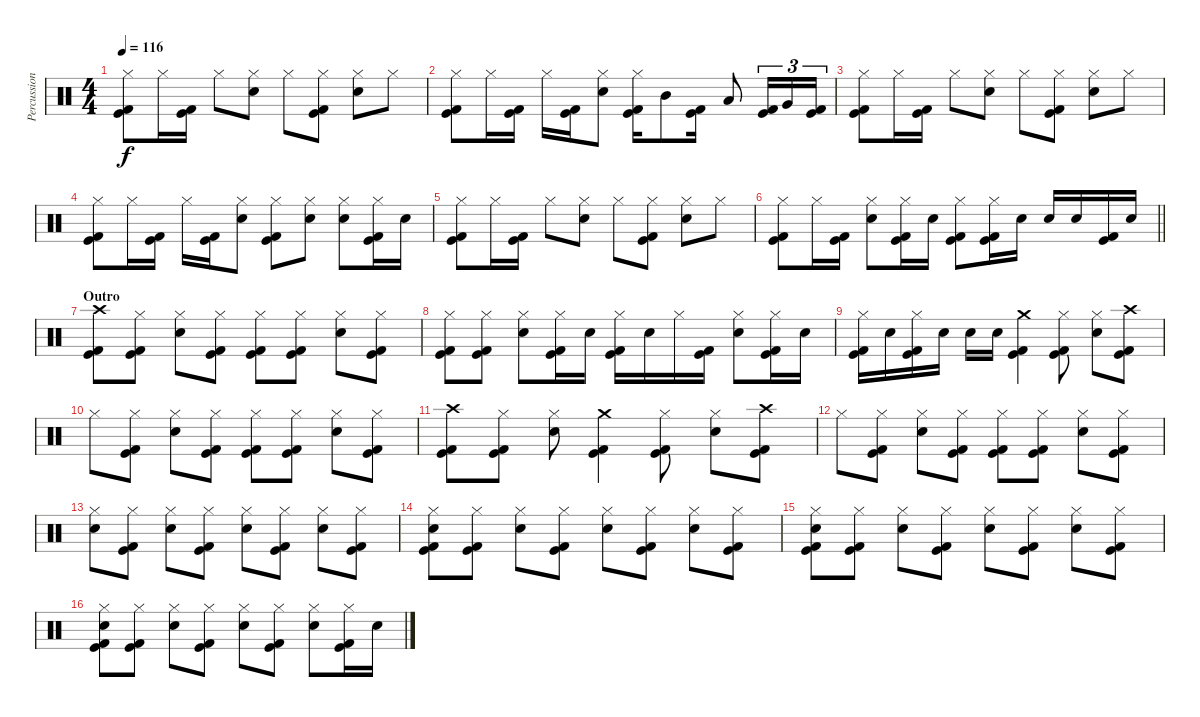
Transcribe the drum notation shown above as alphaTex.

\track ("Percussion" "Percussion") {instrument percussion}
\staff {score}
\articulation defaults
\ts (4 4)
\tempo 116
\clef neutral
\ks c
("Hi-Hat (closed)" "Kick (hit)" "Kick (hit) 2").8{dy f} "Hi-Hat (closed)".16 ("Kick (hit)" "Kick (hit) 2").16 "Hi-Hat (closed)".8 ("Hi-Hat (closed)" "Electric Snare (hit)").8 "Hi-Hat (closed)".8 ("Hi-Hat (closed)" "Kick (hit)" "Kick (hit) 2").8 ("Hi-Hat (closed)" "Electric Snare (hit)").8 "Hi-Hat (closed)".8 |
("Hi-Hat (closed)" "Kick (hit)" "Kick (hit) 2").8 "Hi-Hat (closed)".16 ("Kick (hit)" "Kick (hit) 2").16 "Hi-Hat (closed)".16 ("Kick (hit)" "Kick (hit) 2").16 ("Hi-Hat (closed)" "Electric Snare (hit)").8 ("Hi-Hat (closed)" "Kick (hit)" "Kick (hit) 2").16 "Mid Tom (hit)".8 ("Kick (hit)" "Kick (hit) 2").16 "Low Tom (hit)".8 ("Kick (hit)" "Kick (hit) 2").16{tu (3 2)} "Very Low Tom (hit)".16{tu (3 2)} ("Kick (hit)" "Kick (hit) 2").16{tu (3 2)} |
("Hi-Hat (closed)" "Kick (hit)" "Kick (hit) 2").8 "Hi-Hat (closed)".16 ("Kick (hit)" "Kick (hit) 2").16 "Hi-Hat (closed)".8 ("Hi-Hat (closed)" "Electric Snare (hit)").8 "Hi-Hat (closed)".8 ("Hi-Hat (closed)" "Kick (hit)" "Kick (hit) 2").8 ("Hi-Hat (closed)" "Electric Snare (hit)").8 "Hi-Hat (closed)".8 |
("Hi-Hat (closed)" "Kick (hit)" "Kick (hit) 2").8 "Hi-Hat (closed)".16 ("Kick (hit)" "Kick (hit) 2").16 "Hi-Hat (closed)".16 ("Kick (hit)" "Kick (hit) 2").16 ("Hi-Hat (closed)" "Electric Snare (hit)").8 ("Hi-Hat (closed)" "Kick (hit)" "Kick (hit) 2").8 ("Hi-Hat (closed)" "Electric Snare (hit)").8 ("Hi-Hat (closed)" "Electric Snare (hit)").8 ("Hi-Hat (closed)" "Kick (hit)" "Kick (hit) 2").16 "Electric Snare (hit)".16 |
("Hi-Hat (closed)" "Kick (hit)" "Kick (hit) 2").8 "Hi-Hat (closed)".16 ("Kick (hit)" "Kick (hit) 2").16 "Hi-Hat (closed)".8 ("Hi-Hat (closed)" "Electric Snare (hit)").8 "Hi-Hat (closed)".8 ("Hi-Hat (closed)" "Kick (hit)" "Kick (hit) 2").8 ("Hi-Hat (closed)" "Electric Snare (hit)").8 "Hi-Hat (closed)".8 |
\barLineRight lightlight
("Hi-Hat (closed)" "Kick (hit)" "Kick (hit) 2").8 "Hi-Hat (closed)".16 ("Kick (hit)" "Kick (hit) 2").16 ("Hi-Hat (closed)" "Electric Snare (hit)").8 ("Hi-Hat (closed)" "Kick (hit)" "Kick (hit) 2").16 "Electric Snare (hit)".16 ("Hi-Hat (closed)" "Kick (hit)" "Kick (hit) 2").8 ("Hi-Hat (closed)" "Kick (hit)" "Kick (hit) 2").16 "Electric Snare (hit)".16 "Electric Snare (hit)".16 "Electric Snare (hit)".16 ("Kick (hit)" "Kick (hit) 2").16 "Electric Snare (hit)".16 |
\section ("" "Outro")
("Crash high (hit)" "Kick (hit)" "Kick (hit) 2").8 ("Hi-Hat (closed)" "Kick (hit)" "Kick (hit) 2").8 ("Hi-Hat (closed)" "Electric Snare (hit)").8 ("Hi-Hat (closed)" "Kick (hit)" "Kick (hit) 2").8 ("Hi-Hat (closed)" "Kick (hit)" "Kick (hit) 2").8 ("Hi-Hat (closed)" "Kick (hit)" "Kick (hit) 2").8 ("Hi-Hat (closed)" "Electric Snare (hit)").8 ("Hi-Hat (closed)" "Kick (hit)" "Kick (hit) 2").8 |
("Hi-Hat (closed)" "Kick (hit)" "Kick (hit) 2").8 ("Hi-Hat (closed)" "Kick (hit)" "Kick (hit) 2").8 ("Hi-Hat (closed)" "Electric Snare (hit)").8 ("Hi-Hat (closed)" "Kick (hit)" "Kick (hit) 2").16 "Electric Snare (hit)".16 ("Hi-Hat (closed)" "Kick (hit)" "Kick (hit) 2").16 "Electric Snare (hit)".16 "Hi-Hat (closed)".16 ("Kick (hit)" "Kick (hit) 2").16 ("Hi-Hat (closed)" "Electric Snare (hit)").8 ("Hi-Hat (closed)" "Kick (hit)" "Kick (hit) 2").16 "Electric Snare (hit)".16 |
("Hi-Hat (closed)" "Kick (hit)" "Kick (hit) 2").16 "Electric Snare (hit)".16 ("Hi-Hat (closed)" "Kick (hit)" "Kick (hit) 2").16 "Electric Snare (hit)".16 "Electric Snare (hit)".16 "Electric Snare (hit)".16 ("Crash medium (hit)" "Kick (hit)" "Kick (hit) 2").4 ("Hi-Hat (closed)" "Kick (hit)" "Kick (hit) 2").8 ("Hi-Hat (closed)" "Electric Snare (hit)").8 ("Crash high (hit)" "Kick (hit)" "Kick (hit) 2").8 |
"Hi-Hat (closed)".8 ("Hi-Hat (closed)" "Kick (hit)" "Kick (hit) 2").8 ("Hi-Hat (closed)" "Electric Snare (hit)").8 ("Hi-Hat (closed)" "Kick (hit)" "Kick (hit) 2").8 ("Hi-Hat (closed)" "Kick (hit)" "Kick (hit) 2").8 ("Hi-Hat (closed)" "Kick (hit)" "Kick (hit) 2").8 ("Hi-Hat (closed)" "Electric Snare (hit)").8 ("Hi-Hat (closed)" "Kick (hit)" "Kick (hit) 2").8 |
("Crash high (hit)" "Kick (hit)" "Kick (hit) 2").8 ("Hi-Hat (closed)" "Kick (hit)" "Kick (hit) 2").8 ("Hi-Hat (closed)" "Electric Snare (hit)").8 ("Crash medium (hit)" "Kick (hit)" "Kick (hit) 2").4 ("Hi-Hat (closed)" "Kick (hit)" "Kick (hit) 2").8 ("Hi-Hat (closed)" "Electric Snare (hit)").8 ("Crash high (hit)" "Kick (hit)" "Kick (hit) 2").8 |
"Hi-Hat (closed)".8 ("Hi-Hat (closed)" "Kick (hit)" "Kick (hit) 2").8 ("Hi-Hat (closed)" "Electric Snare (hit)").8 ("Hi-Hat (closed)" "Kick (hit)" "Kick (hit) 2").8 ("Hi-Hat (closed)" "Kick (hit)" "Kick (hit) 2").8 ("Hi-Hat (closed)" "Kick (hit)" "Kick (hit) 2").8 ("Hi-Hat (closed)" "Electric Snare (hit)").8 ("Hi-Hat (closed)" "Kick (hit)" "Kick (hit) 2").8 |
("Hi-Hat (closed)" "Electric Snare (hit)").8 ("Hi-Hat (closed)" "Kick (hit)" "Kick (hit) 2").8 ("Hi-Hat (closed)" "Electric Snare (hit)").8 ("Hi-Hat (closed)" "Kick (hit)" "Kick (hit) 2").8 ("Hi-Hat (closed)" "Electric Snare (hit)").8 ("Hi-Hat (closed)" "Kick (hit)" "Kick (hit) 2").8 ("Hi-Hat (closed)" "Electric Snare (hit)").8 ("Hi-Hat (closed)" "Kick (hit)" "Kick (hit) 2").8 |
("Hi-Hat (closed)" "Electric Snare (hit)" "Kick (hit)" "Kick (hit) 2").8 ("Hi-Hat (closed)" "Kick (hit)" "Kick (hit) 2").8 ("Hi-Hat (closed)" "Electric Snare (hit)").8 ("Hi-Hat (closed)" "Kick (hit)" "Kick (hit) 2").8 ("Hi-Hat (closed)" "Electric Snare (hit)").8 ("Hi-Hat (closed)" "Kick (hit)" "Kick (hit) 2").8 ("Hi-Hat (closed)" "Electric Snare (hit)").8 ("Hi-Hat (closed)" "Kick (hit)" "Kick (hit) 2").8 |
("Hi-Hat (closed)" "Electric Snare (hit)" "Kick (hit)" "Kick (hit) 2").8 ("Hi-Hat (closed)" "Kick (hit)" "Kick (hit) 2").8 ("Hi-Hat (closed)" "Electric Snare (hit)").8 ("Hi-Hat (closed)" "Kick (hit)" "Kick (hit) 2").8 ("Hi-Hat (closed)" "Electric Snare (hit)").8 ("Hi-Hat (closed)" "Kick (hit)" "Kick (hit) 2").8 ("Hi-Hat (closed)" "Electric Snare (hit)").8 ("Hi-Hat (closed)" "Kick (hit)" "Kick (hit) 2").8 |
("Hi-Hat (closed)" "Electric Snare (hit)" "Kick (hit)" "Kick (hit) 2").8 ("Hi-Hat (closed)" "Kick (hit)" "Kick (hit) 2").8 ("Hi-Hat (closed)" "Electric Snare (hit)").8 ("Hi-Hat (closed)" "Kick (hit)" "Kick (hit) 2").8 ("Hi-Hat (closed)" "Electric Snare (hit)").8 ("Hi-Hat (closed)" "Kick (hit)" "Kick (hit) 2").8 ("Hi-Hat (closed)" "Electric Snare (hit)").8 ("Hi-Hat (closed)" "Kick (hit)" "Kick (hit) 2").16 "Electric Snare (hit)".16
